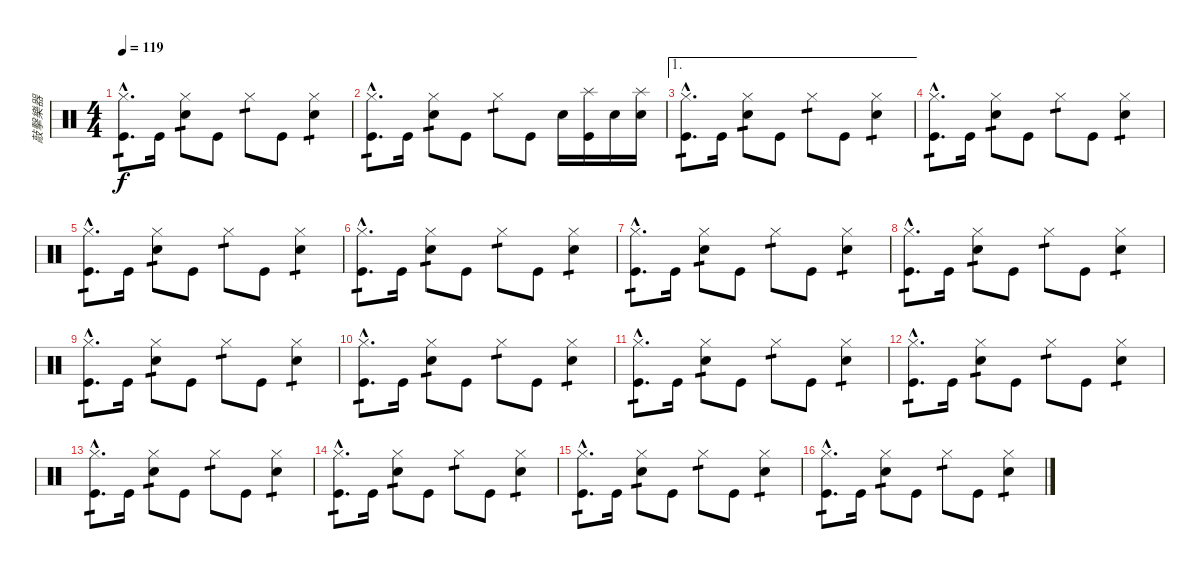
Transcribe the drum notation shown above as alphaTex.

\track ("敲擊樂器" "敲擊樂器") {instrument percussion}
\staff {score}
\articulation defaults
\ts (4 4)
\tempo 119
\clef neutral
\ks c
("Hi-Hat (closed)"{hac} "Kick (hit)"{hac}).8{d tp 1 dy f} "Kick (hit)".16 ("Hi-Hat (closed)" "Electric Snare (hit)").8{tp 1} "Kick (hit)".8 "Hi-Hat (closed)".8{tp 1} "Kick (hit)".8 ("Hi-Hat (closed)" "Electric Snare (hit)").4{tp 1} |
("Hi-Hat (closed)"{hac} "Kick (hit)"{hac}).8{d tp 1} "Kick (hit)".16 ("Hi-Hat (closed)" "Electric Snare (hit)").8{tp 1} "Kick (hit)".8 "Hi-Hat (closed)".8{tp 1} "Kick (hit)".8 "Electric Snare (hit)".16 ("Splash (hit)" "Kick (hit)").16 "Electric Snare (hit)".16 ("Splash (hit)" "Electric Snare (hit)").16 |
\ae 1
("Hi-Hat (closed)"{hac} "Kick (hit)"{hac}).8{d tp 1} "Kick (hit)".16 ("Hi-Hat (closed)" "Electric Snare (hit)").8{tp 1} "Kick (hit)".8 "Hi-Hat (closed)".8{tp 1} "Kick (hit)".8 ("Hi-Hat (closed)" "Electric Snare (hit)").4{tp 1} |
("Hi-Hat (closed)"{hac} "Kick (hit)"{hac}).8{d tp 1} "Kick (hit)".16 ("Hi-Hat (closed)" "Electric Snare (hit)").8{tp 1} "Kick (hit)".8 "Hi-Hat (closed)".8{tp 1} "Kick (hit)".8 ("Hi-Hat (closed)" "Electric Snare (hit)").4{tp 1} |
("Hi-Hat (closed)"{hac} "Kick (hit)"{hac}).8{d tp 1} "Kick (hit)".16 ("Hi-Hat (closed)" "Electric Snare (hit)").8{tp 1} "Kick (hit)".8 "Hi-Hat (closed)".8{tp 1} "Kick (hit)".8 ("Hi-Hat (closed)" "Electric Snare (hit)").4{tp 1} |
("Hi-Hat (closed)"{hac} "Kick (hit)"{hac}).8{d tp 1} "Kick (hit)".16 ("Hi-Hat (closed)" "Electric Snare (hit)").8{tp 1} "Kick (hit)".8 "Hi-Hat (closed)".8{tp 1} "Kick (hit)".8 ("Hi-Hat (closed)" "Electric Snare (hit)").4{tp 1} |
("Hi-Hat (closed)"{hac} "Kick (hit)"{hac}).8{d tp 1} "Kick (hit)".16 ("Hi-Hat (closed)" "Electric Snare (hit)").8{tp 1} "Kick (hit)".8 "Hi-Hat (closed)".8{tp 1} "Kick (hit)".8 ("Hi-Hat (closed)" "Electric Snare (hit)").4{tp 1} |
("Hi-Hat (closed)"{hac} "Kick (hit)"{hac}).8{d tp 1} "Kick (hit)".16 ("Hi-Hat (closed)" "Electric Snare (hit)").8{tp 1} "Kick (hit)".8 "Hi-Hat (closed)".8{tp 1} "Kick (hit)".8 ("Hi-Hat (closed)" "Electric Snare (hit)").4{tp 1} |
("Hi-Hat (closed)"{hac} "Kick (hit)"{hac}).8{d tp 1} "Kick (hit)".16 ("Hi-Hat (closed)" "Electric Snare (hit)").8{tp 1} "Kick (hit)".8 "Hi-Hat (closed)".8{tp 1} "Kick (hit)".8 ("Hi-Hat (closed)" "Electric Snare (hit)").4{tp 1} |
("Hi-Hat (closed)"{hac} "Kick (hit)"{hac}).8{d tp 1} "Kick (hit)".16 ("Hi-Hat (closed)" "Electric Snare (hit)").8{tp 1} "Kick (hit)".8 "Hi-Hat (closed)".8{tp 1} "Kick (hit)".8 ("Hi-Hat (closed)" "Electric Snare (hit)").4{tp 1} |
("Hi-Hat (closed)"{hac} "Kick (hit)"{hac}).8{d tp 1} "Kick (hit)".16 ("Hi-Hat (closed)" "Electric Snare (hit)").8{tp 1} "Kick (hit)".8 "Hi-Hat (closed)".8{tp 1} "Kick (hit)".8 ("Hi-Hat (closed)" "Electric Snare (hit)").4{tp 1} |
("Hi-Hat (closed)"{hac} "Kick (hit)"{hac}).8{d tp 1} "Kick (hit)".16 ("Hi-Hat (closed)" "Electric Snare (hit)").8{tp 1} "Kick (hit)".8 "Hi-Hat (closed)".8{tp 1} "Kick (hit)".8 ("Hi-Hat (closed)" "Electric Snare (hit)").4{tp 1} |
("Hi-Hat (closed)"{hac} "Kick (hit)"{hac}).8{d tp 1} "Kick (hit)".16 ("Hi-Hat (closed)" "Electric Snare (hit)").8{tp 1} "Kick (hit)".8 "Hi-Hat (closed)".8{tp 1} "Kick (hit)".8 ("Hi-Hat (closed)" "Electric Snare (hit)").4{tp 1} |
("Hi-Hat (closed)"{hac} "Kick (hit)"{hac}).8{d tp 1} "Kick (hit)".16 ("Hi-Hat (closed)" "Electric Snare (hit)").8{tp 1} "Kick (hit)".8 "Hi-Hat (closed)".8{tp 1} "Kick (hit)".8 ("Hi-Hat (closed)" "Electric Snare (hit)").4{tp 1} |
("Hi-Hat (closed)"{hac} "Kick (hit)"{hac}).8{d tp 1} "Kick (hit)".16 ("Hi-Hat (closed)" "Electric Snare (hit)").8{tp 1} "Kick (hit)".8 "Hi-Hat (closed)".8{tp 1} "Kick (hit)".8 ("Hi-Hat (closed)" "Electric Snare (hit)").4{tp 1} |
("Hi-Hat (closed)"{hac} "Kick (hit)"{hac}).8{d tp 1} "Kick (hit)".16 ("Hi-Hat (closed)" "Electric Snare (hit)").8{tp 1} "Kick (hit)".8 "Hi-Hat (closed)".8{tp 1} "Kick (hit)".8 ("Hi-Hat (closed)" "Electric Snare (hit)").4{tp 1}
